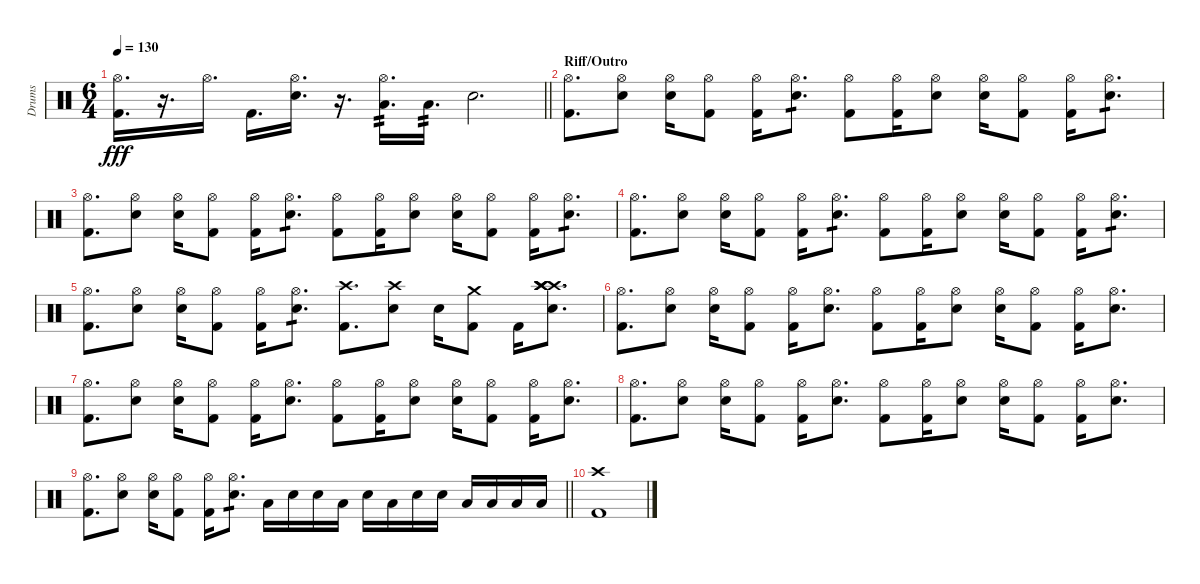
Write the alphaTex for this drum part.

\track ("Drums" "Drums") {instrument percussion}
\staff {score}
\articulation defaults
\ts (6 4)
\tempo 130
\clef neutral
\barLineRight lightlight
\ks c
("Hi-Hat (open)" "Kick (hit) 2").16{d dy fff} r.16{d} "Hi-Hat (open)".16{d} "Kick (hit) 2".16{d} ("Hi-Hat (open)" "Snare (hit) 2").16{d} r.16{d} ("Hi-Hat (open)" "Low Floor Tom (hit)").16{d tp 2} "Low Tom (hit)".16{d tp 2} "Snare (hit) 2".2{d} |
\section ("" "Riff/Outro")
("Hi-Hat (open)" "Kick (hit) 2").8{d} ("Hi-Hat (open)" "Snare (hit) 2").8 ("Hi-Hat (open)" "Snare (hit) 2").16 ("Hi-Hat (open)" "Kick (hit) 2").8 ("Hi-Hat (open)" "Kick (hit) 2").16 ("Hi-Hat (open)" "Snare (hit) 2").8{d tp 1} ("Hi-Hat (open)" "Kick (hit) 2").8 ("Hi-Hat (open)" "Kick (hit) 2").16 ("Hi-Hat (open)" "Snare (hit) 2").8 ("Hi-Hat (open)" "Snare (hit) 2").16 ("Hi-Hat (open)" "Kick (hit) 2").8 ("Hi-Hat (open)" "Kick (hit) 2").16 ("Hi-Hat (open)" "Snare (hit) 2").8{d tp 1} |
("Hi-Hat (open)" "Kick (hit) 2").8{d} ("Hi-Hat (open)" "Snare (hit) 2").8 ("Hi-Hat (open)" "Snare (hit) 2").16 ("Hi-Hat (open)" "Kick (hit) 2").8 ("Hi-Hat (open)" "Kick (hit) 2").16 ("Hi-Hat (open)" "Snare (hit) 2").8{d tp 1} ("Hi-Hat (open)" "Kick (hit) 2").8 ("Hi-Hat (open)" "Kick (hit) 2").16 ("Hi-Hat (open)" "Snare (hit) 2").8 ("Hi-Hat (open)" "Snare (hit) 2").16 ("Hi-Hat (open)" "Kick (hit) 2").8 ("Hi-Hat (open)" "Kick (hit) 2").16 ("Hi-Hat (open)" "Snare (hit) 2").8{d tp 1} |
("Hi-Hat (open)" "Kick (hit) 2").8{d} ("Hi-Hat (open)" "Snare (hit) 2").8 ("Hi-Hat (open)" "Snare (hit) 2").16 ("Hi-Hat (open)" "Kick (hit) 2").8 ("Hi-Hat (open)" "Kick (hit) 2").16 ("Hi-Hat (open)" "Snare (hit) 2").8{d tp 1} ("Hi-Hat (open)" "Kick (hit) 2").8 ("Hi-Hat (open)" "Kick (hit) 2").16 ("Hi-Hat (open)" "Snare (hit) 2").8 ("Hi-Hat (open)" "Snare (hit) 2").16 ("Hi-Hat (open)" "Kick (hit) 2").8 ("Hi-Hat (open)" "Kick (hit) 2").16 ("Hi-Hat (open)" "Snare (hit) 2").8{d tp 1} |
("Hi-Hat (open)" "Kick (hit) 2").8{d} ("Hi-Hat (open)" "Snare (hit) 2").8 ("Hi-Hat (open)" "Snare (hit) 2").16 ("Hi-Hat (open)" "Kick (hit) 2").8 ("Hi-Hat (open)" "Kick (hit) 2").16 ("Hi-Hat (open)" "Snare (hit) 2").8{d tp 1} ("Crash high (hit)" "Kick (hit) 2").8{d} ("Crash high (hit)" "Snare (hit) 2").8 "Snare (hit) 2".16 ("Crash medium (hit)" "Kick (hit) 2").8 "Kick (hit) 2".16 ("Crash high (hit)" "Crash high (hit)" "Crash high (hit)" "Crash high (hit)" "Snare (hit) 2").8{d} |
("Hi-Hat (open)" "Kick (hit) 2").8{d} ("Hi-Hat (open)" "Snare (hit) 2").8 ("Hi-Hat (open)" "Snare (hit) 2").16 ("Hi-Hat (open)" "Kick (hit) 2").8 ("Hi-Hat (open)" "Kick (hit) 2").16 ("Hi-Hat (open)" "Snare (hit) 2").8{d} ("Hi-Hat (open)" "Kick (hit) 2").8 ("Hi-Hat (open)" "Kick (hit) 2").16 ("Hi-Hat (open)" "Snare (hit) 2").8 ("Hi-Hat (open)" "Snare (hit) 2").16 ("Hi-Hat (open)" "Kick (hit) 2").8 ("Hi-Hat (open)" "Kick (hit) 2").16 ("Hi-Hat (open)" "Snare (hit) 2").8{d} |
("Hi-Hat (open)" "Kick (hit) 2").8{d} ("Hi-Hat (open)" "Snare (hit) 2").8 ("Hi-Hat (open)" "Snare (hit) 2").16 ("Hi-Hat (open)" "Kick (hit) 2").8 ("Hi-Hat (open)" "Kick (hit) 2").16 ("Hi-Hat (open)" "Snare (hit) 2").8{d} ("Hi-Hat (open)" "Kick (hit) 2").8 ("Hi-Hat (open)" "Kick (hit) 2").16 ("Hi-Hat (open)" "Snare (hit) 2").8 ("Hi-Hat (open)" "Snare (hit) 2").16 ("Hi-Hat (open)" "Kick (hit) 2").8 ("Hi-Hat (open)" "Kick (hit) 2").16 ("Hi-Hat (open)" "Snare (hit) 2").8{d} |
("Hi-Hat (open)" "Kick (hit) 2").8{d} ("Hi-Hat (open)" "Snare (hit) 2").8 ("Hi-Hat (open)" "Snare (hit) 2").16 ("Hi-Hat (open)" "Kick (hit) 2").8 ("Hi-Hat (open)" "Kick (hit) 2").16 ("Hi-Hat (open)" "Snare (hit) 2").8{d} ("Hi-Hat (open)" "Kick (hit) 2").8 ("Hi-Hat (open)" "Kick (hit) 2").16 ("Hi-Hat (open)" "Snare (hit) 2").8 ("Hi-Hat (open)" "Snare (hit) 2").16 ("Hi-Hat (open)" "Kick (hit) 2").8 ("Hi-Hat (open)" "Kick (hit) 2").16 ("Hi-Hat (open)" "Snare (hit) 2").8{d} |
\barLineRight lightlight
("Hi-Hat (open)" "Kick (hit) 2").8{d} ("Hi-Hat (open)" "Snare (hit) 2").8 ("Hi-Hat (open)" "Snare (hit) 2").16 ("Hi-Hat (open)" "Kick (hit) 2").8 ("Hi-Hat (open)" "Kick (hit) 2").16 ("Hi-Hat (open)" "Snare (hit) 2").8{d tp 1} "Low Tom (hit)".16 "Snare (hit) 2".16 "Snare (hit) 2".16 "Low Tom (hit)".16 "Snare (hit) 2".16 "Low Tom (hit)".16 "Snare (hit) 2".16 "Snare (hit) 2".16 "Low Tom (hit)".16 "Low Tom (hit)".16 "Low Tom (hit)".16 "Low Floor Tom (hit)".16 |
("Crash high (hit)" "Kick (hit) 2").1
